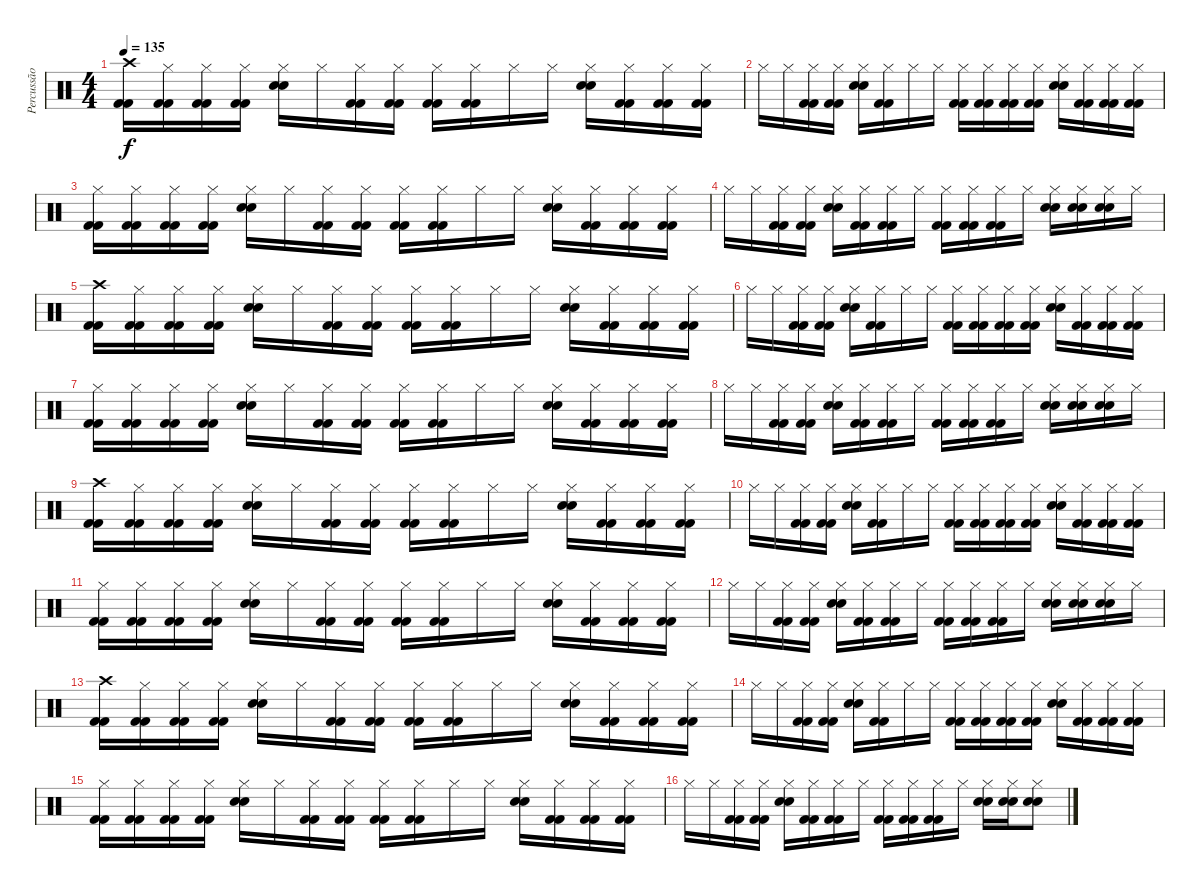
\track ("Percussão" "Percussão") {instrument percussion}
\staff {score}
\articulation defaults
\ts (4 4)
\tempo 135
\clef neutral
\ks c
("Crash high (hit)" "Kick (hit) 2" "Kick (hit) 2").16{dy f} ("Hi-Hat (closed)" "Kick (hit) 2" "Kick (hit) 2").16 ("Hi-Hat (closed)" "Kick (hit) 2" "Kick (hit) 2").16 ("Hi-Hat (closed)" "Kick (hit) 2" "Kick (hit) 2").16 ("Hi-Hat (closed)" "Electric Snare (hit)" "Electric Snare (hit)").16 "Hi-Hat (closed)".16 ("Hi-Hat (closed)" "Kick (hit) 2" "Kick (hit) 2").16 ("Hi-Hat (closed)" "Kick (hit) 2" "Kick (hit) 2").16 ("Hi-Hat (closed)" "Kick (hit) 2" "Kick (hit) 2").16 ("Hi-Hat (closed)" "Kick (hit) 2" "Kick (hit) 2").16 "Hi-Hat (closed)".16 "Hi-Hat (closed)".16 ("Hi-Hat (closed)" "Electric Snare (hit)" "Electric Snare (hit)").16 ("Hi-Hat (closed)" "Kick (hit) 2" "Kick (hit) 2").16 ("Hi-Hat (closed)" "Kick (hit) 2" "Kick (hit) 2").16 ("Hi-Hat (closed)" "Kick (hit) 2" "Kick (hit) 2").16 |
"Hi-Hat (closed)".16 "Hi-Hat (closed)".16 ("Hi-Hat (closed)" "Kick (hit) 2" "Kick (hit) 2").16 ("Hi-Hat (closed)" "Kick (hit) 2" "Kick (hit) 2").16 ("Hi-Hat (closed)" "Electric Snare (hit)" "Electric Snare (hit)").16 ("Hi-Hat (closed)" "Kick (hit) 2" "Kick (hit) 2").16 "Hi-Hat (closed)".16 "Hi-Hat (closed)".16 ("Hi-Hat (closed)" "Kick (hit) 2" "Kick (hit) 2").16 ("Hi-Hat (closed)" "Kick (hit) 2" "Kick (hit) 2").16 ("Hi-Hat (closed)" "Kick (hit) 2" "Kick (hit) 2").16 ("Hi-Hat (closed)" "Kick (hit) 2" "Kick (hit) 2").16 ("Hi-Hat (closed)" "Electric Snare (hit)" "Electric Snare (hit)").16 ("Hi-Hat (closed)" "Kick (hit) 2" "Kick (hit) 2").16 ("Hi-Hat (closed)" "Kick (hit) 2" "Kick (hit) 2").16 ("Hi-Hat (closed)" "Kick (hit) 2" "Kick (hit) 2").16 |
("Hi-Hat (closed)" "Kick (hit) 2" "Kick (hit) 2").16 ("Hi-Hat (closed)" "Kick (hit) 2" "Kick (hit) 2").16 ("Hi-Hat (closed)" "Kick (hit) 2" "Kick (hit) 2").16 ("Hi-Hat (closed)" "Kick (hit) 2" "Kick (hit) 2").16 ("Hi-Hat (closed)" "Electric Snare (hit)" "Electric Snare (hit)").16 "Hi-Hat (closed)".16 ("Hi-Hat (closed)" "Kick (hit) 2" "Kick (hit) 2").16 ("Hi-Hat (closed)" "Kick (hit) 2" "Kick (hit) 2").16 ("Hi-Hat (closed)" "Kick (hit) 2" "Kick (hit) 2").16 ("Hi-Hat (closed)" "Kick (hit) 2" "Kick (hit) 2").16 "Hi-Hat (closed)".16 "Hi-Hat (closed)".16 ("Hi-Hat (closed)" "Electric Snare (hit)" "Electric Snare (hit)").16 ("Hi-Hat (closed)" "Kick (hit) 2" "Kick (hit) 2").16 ("Hi-Hat (closed)" "Kick (hit) 2" "Kick (hit) 2").16 ("Hi-Hat (closed)" "Kick (hit) 2" "Kick (hit) 2").16 |
"Hi-Hat (closed)".16 "Hi-Hat (closed)".16 ("Hi-Hat (closed)" "Kick (hit) 2" "Kick (hit) 2").16 ("Hi-Hat (closed)" "Kick (hit) 2" "Kick (hit) 2").16 ("Hi-Hat (closed)" "Electric Snare (hit)" "Electric Snare (hit)").16 ("Hi-Hat (closed)" "Kick (hit) 2" "Kick (hit) 2").16 ("Hi-Hat (closed)" "Kick (hit) 2" "Kick (hit) 2").16 "Hi-Hat (closed)".16 ("Hi-Hat (closed)" "Kick (hit) 2" "Kick (hit) 2").16 ("Hi-Hat (closed)" "Kick (hit) 2" "Kick (hit) 2").16 ("Hi-Hat (closed)" "Kick (hit) 2" "Kick (hit) 2").16 "Hi-Hat (closed)".16 ("Hi-Hat (closed)" "Electric Snare (hit)" "Electric Snare (hit)").16 ("Hi-Hat (closed)" "Electric Snare (hit)" "Electric Snare (hit)").16 ("Hi-Hat (closed)" "Electric Snare (hit)" "Electric Snare (hit)").16 "Hi-Hat (closed)".16 |
("Crash high (hit)" "Kick (hit) 2" "Kick (hit) 2").16 ("Hi-Hat (closed)" "Kick (hit) 2" "Kick (hit) 2").16 ("Hi-Hat (closed)" "Kick (hit) 2" "Kick (hit) 2").16 ("Hi-Hat (closed)" "Kick (hit) 2" "Kick (hit) 2").16 ("Hi-Hat (closed)" "Electric Snare (hit)" "Electric Snare (hit)").16 "Hi-Hat (closed)".16 ("Hi-Hat (closed)" "Kick (hit) 2" "Kick (hit) 2").16 ("Hi-Hat (closed)" "Kick (hit) 2" "Kick (hit) 2").16 ("Hi-Hat (closed)" "Kick (hit) 2" "Kick (hit) 2").16 ("Hi-Hat (closed)" "Kick (hit) 2" "Kick (hit) 2").16 "Hi-Hat (closed)".16 "Hi-Hat (closed)".16 ("Hi-Hat (closed)" "Electric Snare (hit)" "Electric Snare (hit)").16 ("Hi-Hat (closed)" "Kick (hit) 2" "Kick (hit) 2").16 ("Hi-Hat (closed)" "Kick (hit) 2" "Kick (hit) 2").16 ("Hi-Hat (closed)" "Kick (hit) 2" "Kick (hit) 2").16 |
"Hi-Hat (closed)".16 "Hi-Hat (closed)".16 ("Hi-Hat (closed)" "Kick (hit) 2" "Kick (hit) 2").16 ("Hi-Hat (closed)" "Kick (hit) 2" "Kick (hit) 2").16 ("Hi-Hat (closed)" "Electric Snare (hit)" "Electric Snare (hit)").16 ("Hi-Hat (closed)" "Kick (hit) 2" "Kick (hit) 2").16 "Hi-Hat (closed)".16 "Hi-Hat (closed)".16 ("Hi-Hat (closed)" "Kick (hit) 2" "Kick (hit) 2").16 ("Hi-Hat (closed)" "Kick (hit) 2" "Kick (hit) 2").16 ("Hi-Hat (closed)" "Kick (hit) 2" "Kick (hit) 2").16 ("Hi-Hat (closed)" "Kick (hit) 2" "Kick (hit) 2").16 ("Hi-Hat (closed)" "Electric Snare (hit)" "Electric Snare (hit)").16 ("Hi-Hat (closed)" "Kick (hit) 2" "Kick (hit) 2").16 ("Hi-Hat (closed)" "Kick (hit) 2" "Kick (hit) 2").16 ("Hi-Hat (closed)" "Kick (hit) 2" "Kick (hit) 2").16 |
("Hi-Hat (closed)" "Kick (hit) 2" "Kick (hit) 2").16 ("Hi-Hat (closed)" "Kick (hit) 2" "Kick (hit) 2").16 ("Hi-Hat (closed)" "Kick (hit) 2" "Kick (hit) 2").16 ("Hi-Hat (closed)" "Kick (hit) 2" "Kick (hit) 2").16 ("Hi-Hat (closed)" "Electric Snare (hit)" "Electric Snare (hit)").16 "Hi-Hat (closed)".16 ("Hi-Hat (closed)" "Kick (hit) 2" "Kick (hit) 2").16 ("Hi-Hat (closed)" "Kick (hit) 2" "Kick (hit) 2").16 ("Hi-Hat (closed)" "Kick (hit) 2" "Kick (hit) 2").16 ("Hi-Hat (closed)" "Kick (hit) 2" "Kick (hit) 2").16 "Hi-Hat (closed)".16 "Hi-Hat (closed)".16 ("Hi-Hat (closed)" "Electric Snare (hit)" "Electric Snare (hit)").16 ("Hi-Hat (closed)" "Kick (hit) 2" "Kick (hit) 2").16 ("Hi-Hat (closed)" "Kick (hit) 2" "Kick (hit) 2").16 ("Hi-Hat (closed)" "Kick (hit) 2" "Kick (hit) 2").16 |
"Hi-Hat (closed)".16 "Hi-Hat (closed)".16 ("Hi-Hat (closed)" "Kick (hit) 2" "Kick (hit) 2").16 ("Hi-Hat (closed)" "Kick (hit) 2" "Kick (hit) 2").16 ("Hi-Hat (closed)" "Electric Snare (hit)" "Electric Snare (hit)").16 ("Hi-Hat (closed)" "Kick (hit) 2" "Kick (hit) 2").16 ("Hi-Hat (closed)" "Kick (hit) 2" "Kick (hit) 2").16 "Hi-Hat (closed)".16 ("Hi-Hat (closed)" "Kick (hit) 2" "Kick (hit) 2").16 ("Hi-Hat (closed)" "Kick (hit) 2" "Kick (hit) 2").16 ("Hi-Hat (closed)" "Kick (hit) 2" "Kick (hit) 2").16 "Hi-Hat (closed)".16 ("Hi-Hat (closed)" "Electric Snare (hit)" "Electric Snare (hit)").16 ("Hi-Hat (closed)" "Electric Snare (hit)" "Electric Snare (hit)").16 ("Hi-Hat (closed)" "Electric Snare (hit)" "Electric Snare (hit)").16 "Hi-Hat (closed)".16 |
("Crash high (hit)" "Kick (hit) 2" "Kick (hit) 2").16 ("Hi-Hat (closed)" "Kick (hit) 2" "Kick (hit) 2").16 ("Hi-Hat (closed)" "Kick (hit) 2" "Kick (hit) 2").16 ("Hi-Hat (closed)" "Kick (hit) 2" "Kick (hit) 2").16 ("Hi-Hat (closed)" "Electric Snare (hit)" "Electric Snare (hit)").16 "Hi-Hat (closed)".16 ("Hi-Hat (closed)" "Kick (hit) 2" "Kick (hit) 2").16 ("Hi-Hat (closed)" "Kick (hit) 2" "Kick (hit) 2").16 ("Hi-Hat (closed)" "Kick (hit) 2" "Kick (hit) 2").16 ("Hi-Hat (closed)" "Kick (hit) 2" "Kick (hit) 2").16 "Hi-Hat (closed)".16 "Hi-Hat (closed)".16 ("Hi-Hat (closed)" "Electric Snare (hit)" "Electric Snare (hit)").16 ("Hi-Hat (closed)" "Kick (hit) 2" "Kick (hit) 2").16 ("Hi-Hat (closed)" "Kick (hit) 2" "Kick (hit) 2").16 ("Hi-Hat (closed)" "Kick (hit) 2" "Kick (hit) 2").16 |
"Hi-Hat (closed)".16 "Hi-Hat (closed)".16 ("Hi-Hat (closed)" "Kick (hit) 2" "Kick (hit) 2").16 ("Hi-Hat (closed)" "Kick (hit) 2" "Kick (hit) 2").16 ("Hi-Hat (closed)" "Electric Snare (hit)" "Electric Snare (hit)").16 ("Hi-Hat (closed)" "Kick (hit) 2" "Kick (hit) 2").16 "Hi-Hat (closed)".16 "Hi-Hat (closed)".16 ("Hi-Hat (closed)" "Kick (hit) 2" "Kick (hit) 2").16 ("Hi-Hat (closed)" "Kick (hit) 2" "Kick (hit) 2").16 ("Hi-Hat (closed)" "Kick (hit) 2" "Kick (hit) 2").16 ("Hi-Hat (closed)" "Kick (hit) 2" "Kick (hit) 2").16 ("Hi-Hat (closed)" "Electric Snare (hit)" "Electric Snare (hit)").16 ("Hi-Hat (closed)" "Kick (hit) 2" "Kick (hit) 2").16 ("Hi-Hat (closed)" "Kick (hit) 2" "Kick (hit) 2").16 ("Hi-Hat (closed)" "Kick (hit) 2" "Kick (hit) 2").16 |
("Hi-Hat (closed)" "Kick (hit) 2" "Kick (hit) 2").16 ("Hi-Hat (closed)" "Kick (hit) 2" "Kick (hit) 2").16 ("Hi-Hat (closed)" "Kick (hit) 2" "Kick (hit) 2").16 ("Hi-Hat (closed)" "Kick (hit) 2" "Kick (hit) 2").16 ("Hi-Hat (closed)" "Electric Snare (hit)" "Electric Snare (hit)").16 "Hi-Hat (closed)".16 ("Hi-Hat (closed)" "Kick (hit) 2" "Kick (hit) 2").16 ("Hi-Hat (closed)" "Kick (hit) 2" "Kick (hit) 2").16 ("Hi-Hat (closed)" "Kick (hit) 2" "Kick (hit) 2").16 ("Hi-Hat (closed)" "Kick (hit) 2" "Kick (hit) 2").16 "Hi-Hat (closed)".16 "Hi-Hat (closed)".16 ("Hi-Hat (closed)" "Electric Snare (hit)" "Electric Snare (hit)").16 ("Hi-Hat (closed)" "Kick (hit) 2" "Kick (hit) 2").16 ("Hi-Hat (closed)" "Kick (hit) 2" "Kick (hit) 2").16 ("Hi-Hat (closed)" "Kick (hit) 2" "Kick (hit) 2").16 |
"Hi-Hat (closed)".16 "Hi-Hat (closed)".16 ("Hi-Hat (closed)" "Kick (hit) 2" "Kick (hit) 2").16 ("Hi-Hat (closed)" "Kick (hit) 2" "Kick (hit) 2").16 ("Hi-Hat (closed)" "Electric Snare (hit)" "Electric Snare (hit)").16 ("Hi-Hat (closed)" "Kick (hit) 2" "Kick (hit) 2").16 ("Hi-Hat (closed)" "Kick (hit) 2" "Kick (hit) 2").16 "Hi-Hat (closed)".16 ("Hi-Hat (closed)" "Kick (hit) 2" "Kick (hit) 2").16 ("Hi-Hat (closed)" "Kick (hit) 2" "Kick (hit) 2").16 ("Hi-Hat (closed)" "Kick (hit) 2" "Kick (hit) 2").16 "Hi-Hat (closed)".16 ("Hi-Hat (closed)" "Electric Snare (hit)" "Electric Snare (hit)").16 ("Hi-Hat (closed)" "Electric Snare (hit)" "Electric Snare (hit)").16 ("Hi-Hat (closed)" "Electric Snare (hit)" "Electric Snare (hit)").16 "Hi-Hat (closed)".16 |
("Crash high (hit)" "Kick (hit) 2" "Kick (hit) 2").16 ("Hi-Hat (closed)" "Kick (hit) 2" "Kick (hit) 2").16 ("Hi-Hat (closed)" "Kick (hit) 2" "Kick (hit) 2").16 ("Hi-Hat (closed)" "Kick (hit) 2" "Kick (hit) 2").16 ("Hi-Hat (closed)" "Electric Snare (hit)" "Electric Snare (hit)").16 "Hi-Hat (closed)".16 ("Hi-Hat (closed)" "Kick (hit) 2" "Kick (hit) 2").16 ("Hi-Hat (closed)" "Kick (hit) 2" "Kick (hit) 2").16 ("Hi-Hat (closed)" "Kick (hit) 2" "Kick (hit) 2").16 ("Hi-Hat (closed)" "Kick (hit) 2" "Kick (hit) 2").16 "Hi-Hat (closed)".16 "Hi-Hat (closed)".16 ("Hi-Hat (closed)" "Electric Snare (hit)" "Electric Snare (hit)").16 ("Hi-Hat (closed)" "Kick (hit) 2" "Kick (hit) 2").16 ("Hi-Hat (closed)" "Kick (hit) 2" "Kick (hit) 2").16 ("Hi-Hat (closed)" "Kick (hit) 2" "Kick (hit) 2").16 |
"Hi-Hat (closed)".16 "Hi-Hat (closed)".16 ("Hi-Hat (closed)" "Kick (hit) 2" "Kick (hit) 2").16 ("Hi-Hat (closed)" "Kick (hit) 2" "Kick (hit) 2").16 ("Hi-Hat (closed)" "Electric Snare (hit)" "Electric Snare (hit)").16 ("Hi-Hat (closed)" "Kick (hit) 2" "Kick (hit) 2").16 "Hi-Hat (closed)".16 "Hi-Hat (closed)".16 ("Hi-Hat (closed)" "Kick (hit) 2" "Kick (hit) 2").16 ("Hi-Hat (closed)" "Kick (hit) 2" "Kick (hit) 2").16 ("Hi-Hat (closed)" "Kick (hit) 2" "Kick (hit) 2").16 ("Hi-Hat (closed)" "Kick (hit) 2" "Kick (hit) 2").16 ("Hi-Hat (closed)" "Electric Snare (hit)" "Electric Snare (hit)").16 ("Hi-Hat (closed)" "Kick (hit) 2" "Kick (hit) 2").16 ("Hi-Hat (closed)" "Kick (hit) 2" "Kick (hit) 2").16 ("Hi-Hat (closed)" "Kick (hit) 2" "Kick (hit) 2").16 |
("Hi-Hat (closed)" "Kick (hit) 2" "Kick (hit) 2").16 ("Hi-Hat (closed)" "Kick (hit) 2" "Kick (hit) 2").16 ("Hi-Hat (closed)" "Kick (hit) 2" "Kick (hit) 2").16 ("Hi-Hat (closed)" "Kick (hit) 2" "Kick (hit) 2").16 ("Hi-Hat (closed)" "Electric Snare (hit)" "Electric Snare (hit)").16 "Hi-Hat (closed)".16 ("Hi-Hat (closed)" "Kick (hit) 2" "Kick (hit) 2").16 ("Hi-Hat (closed)" "Kick (hit) 2" "Kick (hit) 2").16 ("Hi-Hat (closed)" "Kick (hit) 2" "Kick (hit) 2").16 ("Hi-Hat (closed)" "Kick (hit) 2" "Kick (hit) 2").16 "Hi-Hat (closed)".16 "Hi-Hat (closed)".16 ("Hi-Hat (closed)" "Electric Snare (hit)" "Electric Snare (hit)").16 ("Hi-Hat (closed)" "Kick (hit) 2" "Kick (hit) 2").16 ("Hi-Hat (closed)" "Kick (hit) 2" "Kick (hit) 2").16 ("Hi-Hat (closed)" "Kick (hit) 2" "Kick (hit) 2").16 |
"Hi-Hat (closed)".16 "Hi-Hat (closed)".16 ("Hi-Hat (closed)" "Kick (hit) 2" "Kick (hit) 2").16 ("Hi-Hat (closed)" "Kick (hit) 2" "Kick (hit) 2").16 ("Hi-Hat (closed)" "Electric Snare (hit)" "Electric Snare (hit)").16 ("Hi-Hat (closed)" "Kick (hit) 2" "Kick (hit) 2").16 ("Hi-Hat (closed)" "Kick (hit) 2" "Kick (hit) 2").16 "Hi-Hat (closed)".16 ("Hi-Hat (closed)" "Kick (hit) 2" "Kick (hit) 2").16 ("Hi-Hat (closed)" "Kick (hit) 2" "Kick (hit) 2").16 ("Hi-Hat (closed)" "Kick (hit) 2" "Kick (hit) 2").16 "Hi-Hat (closed)".16 ("Hi-Hat (closed)" "Electric Snare (hit)" "Electric Snare (hit)").16 ("Hi-Hat (closed)" "Electric Snare (hit)" "Electric Snare (hit)").16 ("Hi-Hat (closed)" "Electric Snare (hit)" "Electric Snare (hit)").8
